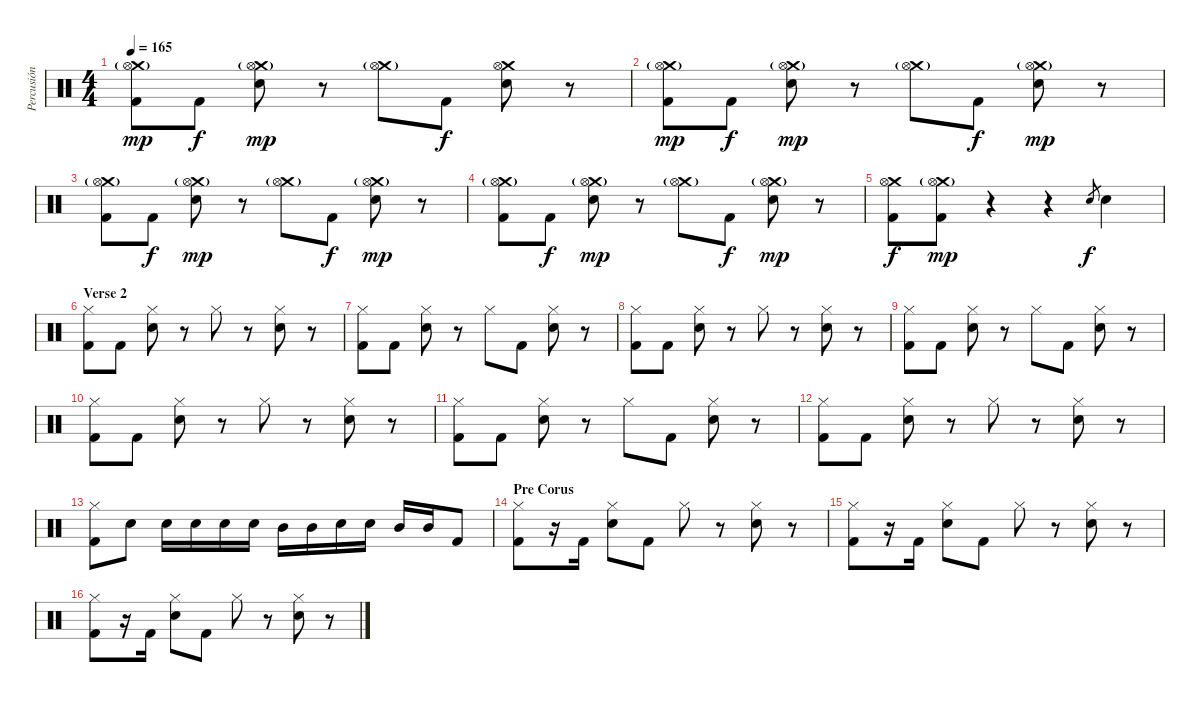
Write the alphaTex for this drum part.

\track ("Percusión" "Percusión") {instrument percussion}
\staff {score}
\articulation defaults
\ts (4 4)
\tempo 165
\clef neutral
\ks c
("Crash medium (hit)"{g} "Hi-Hat (open)" "Kick (hit) 2").8{dy mp} "Kick (hit) 2".8{dy f} ("Crash medium (hit)"{g} "Hi-Hat (open)" "Electric Snare (hit)").8{dy mp} r.8 ("Crash medium (hit)"{g} "Hi-Hat (open)").8 "Kick (hit) 2".8{dy f} ("Crash medium (hit)" "Hi-Hat (open)" "Electric Snare (hit)").8 r.8 |
("Crash medium (hit)"{g} "Hi-Hat (open)" "Kick (hit) 2").8{dy mp} "Kick (hit) 2".8{dy f} ("Crash medium (hit)"{g} "Hi-Hat (open)" "Electric Snare (hit)").8{dy mp} r.8 ("Crash medium (hit)"{g} "Hi-Hat (open)").8 "Kick (hit) 2".8{dy f} ("Crash medium (hit)"{g} "Hi-Hat (open)" "Electric Snare (hit)").8{dy mp} r.8 |
("Crash medium (hit)"{g} "Hi-Hat (open)" "Kick (hit) 2").8 "Kick (hit) 2".8{dy f} ("Crash medium (hit)"{g} "Hi-Hat (open)" "Electric Snare (hit)").8{dy mp} r.8 ("Crash medium (hit)"{g} "Hi-Hat (open)").8 "Kick (hit) 2".8{dy f} ("Crash medium (hit)"{g} "Hi-Hat (open)" "Electric Snare (hit)").8{dy mp} r.8 |
("Crash medium (hit)"{g} "Hi-Hat (open)" "Kick (hit) 2").8 "Kick (hit) 2".8{dy f} ("Crash medium (hit)"{g} "Hi-Hat (open)" "Electric Snare (hit)").8{dy mp} r.8 ("Crash medium (hit)"{g} "Hi-Hat (open)").8 "Kick (hit) 2".8{dy f} ("Crash medium (hit)"{g} "Hi-Hat (open)" "Electric Snare (hit)").8{dy mp} r.8 |
("Crash medium (hit)" "Hi-Hat (open)" "Kick (hit) 2").8{dy f} ("Crash medium (hit)"{g} "Hi-Hat (open)" "Kick (hit) 2").8{dy mp} r.4 r.4 "Electric Snare (hit)".8{gr dy f} "Electric Snare (hit)".4 |
\section ("" "Verse 2")
("Hi-Hat (closed)" "Kick (hit) 2").8 "Kick (hit) 2".8 ("Hi-Hat (closed)" "Electric Snare (hit)").8 r.8 "Hi-Hat (closed)".8 r.8 ("Hi-Hat (closed)" "Electric Snare (hit)").8 r.8 |
("Hi-Hat (closed)" "Kick (hit) 2").8 "Kick (hit) 2".8 ("Hi-Hat (closed)" "Electric Snare (hit)").8 r.8 "Hi-Hat (closed)".8 "Kick (hit) 2".8 ("Hi-Hat (closed)" "Electric Snare (hit)").8 r.8 |
("Hi-Hat (closed)" "Kick (hit) 2").8 "Kick (hit) 2".8 ("Hi-Hat (closed)" "Electric Snare (hit)").8 r.8 "Hi-Hat (closed)".8 r.8 ("Hi-Hat (closed)" "Electric Snare (hit)").8 r.8 |
("Hi-Hat (closed)" "Kick (hit) 2").8 "Kick (hit) 2".8 ("Hi-Hat (closed)" "Electric Snare (hit)").8 r.8 "Hi-Hat (closed)".8 "Kick (hit) 2".8 ("Hi-Hat (closed)" "Electric Snare (hit)").8 r.8 |
("Hi-Hat (closed)" "Kick (hit) 2").8 "Kick (hit) 2".8 ("Hi-Hat (closed)" "Electric Snare (hit)").8 r.8 "Hi-Hat (closed)".8 r.8 ("Hi-Hat (closed)" "Electric Snare (hit)").8 r.8 |
("Hi-Hat (closed)" "Kick (hit) 2").8 "Kick (hit) 2".8 ("Hi-Hat (closed)" "Electric Snare (hit)").8 r.8 "Hi-Hat (closed)".8 "Kick (hit) 2".8 ("Hi-Hat (closed)" "Electric Snare (hit)").8 r.8 |
("Hi-Hat (closed)" "Kick (hit) 2").8 "Kick (hit) 2".8 ("Hi-Hat (closed)" "Electric Snare (hit)").8 r.8 "Hi-Hat (closed)".8 r.8 ("Hi-Hat (closed)" "Electric Snare (hit)").8 r.8 |
("Hi-Hat (closed)" "Kick (hit) 2").8 "Electric Snare (hit)".8 "Electric Snare (hit)".16 "Electric Snare (hit)".16 "Electric Snare (hit)".16 "Electric Snare (hit)".16 "Mid Tom (hit)".16 "Mid Tom (hit)".16 "Electric Snare (hit)".16 "Electric Snare (hit)".16 "Mid Tom (hit)".16 "Mid Tom (hit)".16 "Kick (hit) 2".8 |
\section ("" "Pre Corus")
("Hi-Hat (closed)" "Kick (hit) 2").8 r.16 "Kick (hit) 2".16 ("Hi-Hat (closed)" "Electric Snare (hit)").8 "Kick (hit) 2".8 "Hi-Hat (closed)".8 r.8 ("Hi-Hat (closed)" "Electric Snare (hit)").8 r.8 |
("Hi-Hat (closed)" "Kick (hit) 2").8 r.16 "Kick (hit) 2".16 ("Hi-Hat (closed)" "Electric Snare (hit)").8 "Kick (hit) 2".8 "Hi-Hat (closed)".8 r.8 ("Hi-Hat (closed)" "Electric Snare (hit)").8 r.8 |
("Hi-Hat (closed)" "Kick (hit) 2").8 r.16 "Kick (hit) 2".16 ("Hi-Hat (closed)" "Electric Snare (hit)").8 "Kick (hit) 2".8 "Hi-Hat (closed)".8 r.8 ("Hi-Hat (closed)" "Electric Snare (hit)").8 r.8
